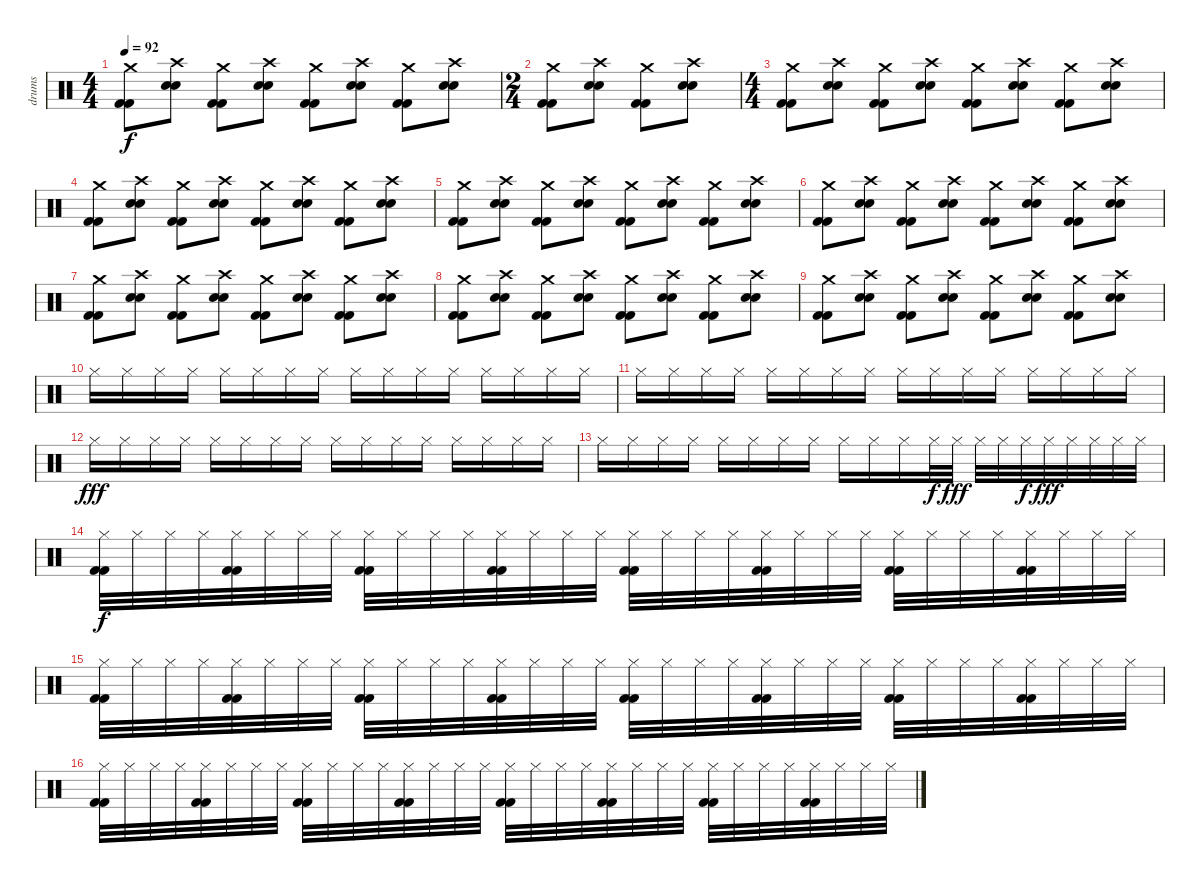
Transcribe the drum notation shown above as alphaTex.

\track ("drums" "drums") {instrument percussion}
\staff {score}
\articulation defaults
\ts (4 4)
\tempo 92
\clef neutral
\ks c
("Crash medium (hit)" "Kick (hit) 2" "Kick (hit) 2").8{dy f} ("Crash high (hit)" "Snare (hit) 2" "Snare (hit) 2").8 ("Crash medium (hit)" "Kick (hit) 2" "Kick (hit) 2").8 ("Crash high (hit)" "Snare (hit) 2" "Snare (hit) 2").8 ("Crash medium (hit)" "Kick (hit) 2" "Kick (hit) 2").8 ("Crash high (hit)" "Snare (hit) 2" "Snare (hit) 2").8 ("Crash medium (hit)" "Kick (hit) 2" "Kick (hit) 2").8 ("Crash high (hit)" "Snare (hit) 2" "Snare (hit) 2").8 |
\ts (2 4)
("Crash medium (hit)" "Kick (hit) 2" "Kick (hit) 2").8 ("Crash high (hit)" "Snare (hit) 2" "Snare (hit) 2").8 ("Crash medium (hit)" "Kick (hit) 2" "Kick (hit) 2").8 ("Crash high (hit)" "Snare (hit) 2" "Snare (hit) 2").8 |
\ts (4 4)
("Crash medium (hit)" "Kick (hit) 2" "Kick (hit) 2").8 ("Crash high (hit)" "Snare (hit) 2" "Snare (hit) 2").8 ("Crash medium (hit)" "Kick (hit) 2" "Kick (hit) 2").8 ("Crash high (hit)" "Snare (hit) 2" "Snare (hit) 2").8 ("Crash medium (hit)" "Kick (hit) 2" "Kick (hit) 2").8 ("Crash high (hit)" "Snare (hit) 2" "Snare (hit) 2").8 ("Crash medium (hit)" "Kick (hit) 2" "Kick (hit) 2").8 ("Crash high (hit)" "Snare (hit) 2" "Snare (hit) 2").8 |
("Crash medium (hit)" "Kick (hit) 2" "Kick (hit) 2").8 ("Crash high (hit)" "Snare (hit) 2" "Snare (hit) 2").8 ("Crash medium (hit)" "Kick (hit) 2" "Kick (hit) 2").8 ("Crash high (hit)" "Snare (hit) 2" "Snare (hit) 2").8 ("Crash medium (hit)" "Kick (hit) 2" "Kick (hit) 2").8 ("Crash high (hit)" "Snare (hit) 2" "Snare (hit) 2").8 ("Crash medium (hit)" "Kick (hit) 2" "Kick (hit) 2").8 ("Crash high (hit)" "Snare (hit) 2" "Snare (hit) 2").8 |
("Crash medium (hit)" "Kick (hit) 2" "Kick (hit) 2").8 ("Crash high (hit)" "Snare (hit) 2" "Snare (hit) 2").8 ("Crash medium (hit)" "Kick (hit) 2" "Kick (hit) 2").8 ("Crash high (hit)" "Snare (hit) 2" "Snare (hit) 2").8 ("Crash medium (hit)" "Kick (hit) 2" "Kick (hit) 2").8 ("Crash high (hit)" "Snare (hit) 2" "Snare (hit) 2").8 ("Crash medium (hit)" "Kick (hit) 2" "Kick (hit) 2").8 ("Crash high (hit)" "Snare (hit) 2" "Snare (hit) 2").8 |
("Crash medium (hit)" "Kick (hit) 2" "Kick (hit) 2").8 ("Crash high (hit)" "Snare (hit) 2" "Snare (hit) 2").8 ("Crash medium (hit)" "Kick (hit) 2" "Kick (hit) 2").8 ("Crash high (hit)" "Snare (hit) 2" "Snare (hit) 2").8 ("Crash medium (hit)" "Kick (hit) 2" "Kick (hit) 2").8 ("Crash high (hit)" "Snare (hit) 2" "Snare (hit) 2").8 ("Crash medium (hit)" "Kick (hit) 2" "Kick (hit) 2").8 ("Crash high (hit)" "Snare (hit) 2" "Snare (hit) 2").8 |
("Crash medium (hit)" "Kick (hit) 2" "Kick (hit) 2").8 ("Crash high (hit)" "Snare (hit) 2" "Snare (hit) 2").8 ("Crash medium (hit)" "Kick (hit) 2" "Kick (hit) 2").8 ("Crash high (hit)" "Snare (hit) 2" "Snare (hit) 2").8 ("Crash medium (hit)" "Kick (hit) 2" "Kick (hit) 2").8 ("Crash high (hit)" "Snare (hit) 2" "Snare (hit) 2").8 ("Crash medium (hit)" "Kick (hit) 2" "Kick (hit) 2").8 ("Crash high (hit)" "Snare (hit) 2" "Snare (hit) 2").8 |
("Crash medium (hit)" "Kick (hit) 2" "Kick (hit) 2").8 ("Crash high (hit)" "Snare (hit) 2" "Snare (hit) 2").8 ("Crash medium (hit)" "Kick (hit) 2" "Kick (hit) 2").8 ("Crash high (hit)" "Snare (hit) 2" "Snare (hit) 2").8 ("Crash medium (hit)" "Kick (hit) 2" "Kick (hit) 2").8 ("Crash high (hit)" "Snare (hit) 2" "Snare (hit) 2").8 ("Crash medium (hit)" "Kick (hit) 2" "Kick (hit) 2").8 ("Crash high (hit)" "Snare (hit) 2" "Snare (hit) 2").8 |
("Crash medium (hit)" "Kick (hit) 2" "Kick (hit) 2").8 ("Crash high (hit)" "Snare (hit) 2" "Snare (hit) 2").8 ("Crash medium (hit)" "Kick (hit) 2" "Kick (hit) 2").8 ("Crash high (hit)" "Snare (hit) 2" "Snare (hit) 2").8 ("Crash medium (hit)" "Kick (hit) 2" "Kick (hit) 2").8 ("Crash high (hit)" "Snare (hit) 2" "Snare (hit) 2").8 ("Crash medium (hit)" "Kick (hit) 2" "Kick (hit) 2").8 ("Crash high (hit)" "Snare (hit) 2" "Snare (hit) 2").8 |
"Hi-Hat (closed)".16 "Hi-Hat (closed)".16 "Hi-Hat (closed)".16 "Hi-Hat (closed)".16 "Hi-Hat (closed)".16 "Hi-Hat (closed)".16 "Hi-Hat (closed)".16 "Hi-Hat (closed)".16 "Hi-Hat (closed)".16 "Hi-Hat (closed)".16 "Hi-Hat (closed)".16 "Hi-Hat (closed)".16 "Hi-Hat (closed)".16 "Hi-Hat (closed)".16 "Hi-Hat (closed)".16 "Hi-Hat (closed)".16 |
"Hi-Hat (closed)".16 "Hi-Hat (closed)".16 "Hi-Hat (closed)".16 "Hi-Hat (closed)".16 "Hi-Hat (closed)".16 "Hi-Hat (closed)".16 "Hi-Hat (closed)".16 "Hi-Hat (closed)".16 "Hi-Hat (closed)".16 "Hi-Hat (closed)".16 "Hi-Hat (closed)".16 "Hi-Hat (closed)".16 "Hi-Hat (closed)".16 "Hi-Hat (closed)".16 "Hi-Hat (closed)".16 "Hi-Hat (closed)".16 |
"Hi-Hat (closed)".16{dy fff} "Hi-Hat (closed)".16 "Hi-Hat (closed)".16 "Hi-Hat (closed)".16 "Hi-Hat (closed)".16 "Hi-Hat (closed)".16 "Hi-Hat (closed)".16 "Hi-Hat (closed)".16 "Hi-Hat (closed)".16 "Hi-Hat (closed)".16 "Hi-Hat (closed)".16 "Hi-Hat (closed)".16 "Hi-Hat (closed)".16 "Hi-Hat (closed)".16 "Hi-Hat (closed)".16 "Hi-Hat (closed)".16 |
"Hi-Hat (closed)".16 "Hi-Hat (closed)".16 "Hi-Hat (closed)".16 "Hi-Hat (closed)".16 "Hi-Hat (closed)".16 "Hi-Hat (closed)".16 "Hi-Hat (closed)".16 "Hi-Hat (closed)".16 "Hi-Hat (closed)".16 "Hi-Hat (closed)".16 "Hi-Hat (closed)".16 "Hi-Hat (closed)".32{dy f} "Hi-Hat (closed)".32{dy fff} "Hi-Hat (closed)".32 "Hi-Hat (closed)".32 "Hi-Hat (closed)".32{dy f} "Hi-Hat (closed)".32{dy fff} "Hi-Hat (closed)".32 "Hi-Hat (closed)".32 "Hi-Hat (closed)".32 "Hi-Hat (closed)".32 |
("Hi-Hat (closed)" "Kick (hit) 2" "Kick (hit) 2").32{dy f} "Hi-Hat (closed)".32 "Hi-Hat (closed)".32 "Hi-Hat (closed)".32 ("Hi-Hat (closed)" "Kick (hit) 2" "Kick (hit) 2").32 "Hi-Hat (closed)".32 "Hi-Hat (closed)".32 "Hi-Hat (closed)".32 ("Hi-Hat (closed)" "Kick (hit) 2" "Kick (hit) 2").32 "Hi-Hat (closed)".32 "Hi-Hat (closed)".32 "Hi-Hat (closed)".32 ("Hi-Hat (closed)" "Kick (hit) 2" "Kick (hit) 2").32 "Hi-Hat (closed)".32 "Hi-Hat (closed)".32 "Hi-Hat (closed)".32 ("Hi-Hat (closed)" "Kick (hit) 2" "Kick (hit) 2").32 "Hi-Hat (closed)".32 "Hi-Hat (closed)".32 "Hi-Hat (closed)".32 ("Hi-Hat (closed)" "Kick (hit) 2" "Kick (hit) 2").32 "Hi-Hat (closed)".32 "Hi-Hat (closed)".32 "Hi-Hat (closed)".32 ("Hi-Hat (closed)" "Kick (hit) 2" "Kick (hit) 2").32 "Hi-Hat (closed)".32 "Hi-Hat (closed)".32 "Hi-Hat (closed)".32 ("Hi-Hat (closed)" "Kick (hit) 2" "Kick (hit) 2").32 "Hi-Hat (closed)".32 "Hi-Hat (closed)".32 "Hi-Hat (closed)".32 |
("Hi-Hat (closed)" "Kick (hit) 2" "Kick (hit) 2").32 "Hi-Hat (closed)".32 "Hi-Hat (closed)".32 "Hi-Hat (closed)".32 ("Hi-Hat (closed)" "Kick (hit) 2" "Kick (hit) 2").32 "Hi-Hat (closed)".32 "Hi-Hat (closed)".32 "Hi-Hat (closed)".32 ("Hi-Hat (closed)" "Kick (hit) 2" "Kick (hit) 2").32 "Hi-Hat (closed)".32 "Hi-Hat (closed)".32 "Hi-Hat (closed)".32 ("Hi-Hat (closed)" "Kick (hit) 2" "Kick (hit) 2").32 "Hi-Hat (closed)".32 "Hi-Hat (closed)".32 "Hi-Hat (closed)".32 ("Hi-Hat (closed)" "Kick (hit) 2" "Kick (hit) 2").32 "Hi-Hat (closed)".32 "Hi-Hat (closed)".32 "Hi-Hat (closed)".32 ("Hi-Hat (closed)" "Kick (hit) 2" "Kick (hit) 2").32 "Hi-Hat (closed)".32 "Hi-Hat (closed)".32 "Hi-Hat (closed)".32 ("Hi-Hat (closed)" "Kick (hit) 2" "Kick (hit) 2").32 "Hi-Hat (closed)".32 "Hi-Hat (closed)".32 "Hi-Hat (closed)".32 ("Hi-Hat (closed)" "Kick (hit) 2" "Kick (hit) 2").32 "Hi-Hat (closed)".32 "Hi-Hat (closed)".32 "Hi-Hat (closed)".32 |
("Hi-Hat (closed)" "Kick (hit) 2" "Kick (hit) 2").32 "Hi-Hat (closed)".32 "Hi-Hat (closed)".32 "Hi-Hat (closed)".32 ("Hi-Hat (closed)" "Kick (hit) 2" "Kick (hit) 2").32 "Hi-Hat (closed)".32 "Hi-Hat (closed)".32 "Hi-Hat (closed)".32 ("Hi-Hat (closed)" "Kick (hit) 2" "Kick (hit) 2").32 "Hi-Hat (closed)".32 "Hi-Hat (closed)".32 "Hi-Hat (closed)".32 ("Hi-Hat (closed)" "Kick (hit) 2" "Kick (hit) 2").32 "Hi-Hat (closed)".32 "Hi-Hat (closed)".32 "Hi-Hat (closed)".32 ("Hi-Hat (closed)" "Kick (hit) 2" "Kick (hit) 2").32 "Hi-Hat (closed)".32 "Hi-Hat (closed)".32 "Hi-Hat (closed)".32 ("Hi-Hat (closed)" "Kick (hit) 2" "Kick (hit) 2").32 "Hi-Hat (closed)".32 "Hi-Hat (closed)".32 "Hi-Hat (closed)".32 ("Hi-Hat (closed)" "Kick (hit) 2" "Kick (hit) 2").32 "Hi-Hat (closed)".32 "Hi-Hat (closed)".32 "Hi-Hat (closed)".32 ("Hi-Hat (closed)" "Kick (hit) 2" "Kick (hit) 2").32 "Hi-Hat (closed)".32 "Hi-Hat (closed)".32 "Hi-Hat (closed)".32
